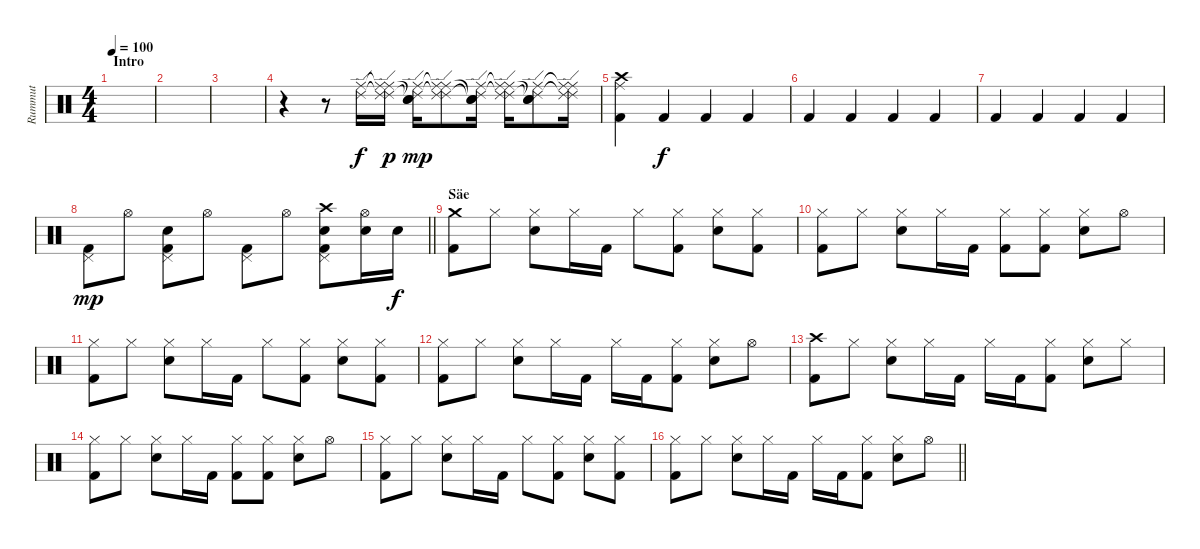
\track ("Rummut" "Rummut") {instrument percussion}
\staff {score}
\articulation defaults
\ts (4 4)
\section ("" "Intro")
\tempo 100
\clef neutral
\ks c
|
|
|
r.4 r.8 ("Ride (middle)" "Ride (edge) 2").16 ("Ride (middle)"{t} "Ride (edge) 2"{t} "Ride (middle)" "Ride (edge) 2").16{dy p} ("Ride (middle)" "Ride (edge) 2" "Snare (hit)"{t} "Snare (hit)"{t}).16{dy mp} ("Ride (middle)"{t} "Ride (edge) 2"{t} "Ride (middle)" "Ride (edge) 2").8 ("Ride (middle)" "Ride (edge) 2" "Snare (hit)"{t} "Snare (hit)"{t}).16 ("Ride (middle)"{t} "Ride (edge) 2"{t} "Ride (middle)" "Ride (edge) 2").16 ("Ride (middle)" "Ride (edge) 2" "Snare (hit)"{t} "Snare (hit)"{t}).8 ("Ride (middle)"{t} "Ride (edge) 2"{t} "Ride (middle)" "Ride (edge) 2").16 |
("Crash high (hit)" "Ride (middle)" "Kick (hit) 2").4 "Kick (hit) 2".4{dy f} "Kick (hit) 2".4 "Kick (hit) 2".4 |
"Kick (hit) 2".4 "Kick (hit) 2".4 "Kick (hit) 2".4 "Kick (hit) 2".4 |
"Kick (hit) 2".4 "Kick (hit) 2".4 "Kick (hit) 2".4 "Kick (hit) 2".4 |
\barLineRight lightlight
("Pedal Hi-Hat (hit)" "Kick (hit) 2").8{dy mp} "Hi-Hat (open)".8 ("Snare (hit) 2" "Pedal Hi-Hat (hit)" "Kick (hit) 2").8 "Hi-Hat (open)".8 ("Pedal Hi-Hat (hit)" "Kick (hit) 2").8 "Hi-Hat (open)".8 ("Crash high (hit)" "Snare (hit) 2" "Pedal Hi-Hat (hit)" "Kick (hit) 2").8 ("Snare (hit) 2" "Hi-Hat (open)").16 "Snare (hit) 2".16{dy f} |
\section ("" "Säe")
("Crash medium (hit)" "Kick (hit) 2").8 "Hi-Hat (closed)".8 ("Hi-Hat (closed)" "Snare (hit) 2").8 "Hi-Hat (closed)".16 "Kick (hit) 2".16 "Hi-Hat (closed)".8 ("Hi-Hat (closed)" "Kick (hit) 2").8 ("Hi-Hat (closed)" "Snare (hit) 2").8 ("Hi-Hat (closed)" "Kick (hit) 2").8 |
("Hi-Hat (closed)" "Kick (hit) 2").8 "Hi-Hat (closed)".8 ("Hi-Hat (closed)" "Snare (hit) 2").8 "Hi-Hat (closed)".16 "Kick (hit) 2".16 ("Hi-Hat (closed)" "Kick (hit) 2").8 ("Hi-Hat (closed)" "Kick (hit) 2").8 ("Hi-Hat (closed)" "Snare (hit) 2").8 "Hi-Hat (open)".8 |
("Hi-Hat (closed)" "Kick (hit) 2").8 "Hi-Hat (closed)".8 ("Hi-Hat (closed)" "Snare (hit) 2").8 "Hi-Hat (closed)".16 "Kick (hit) 2".16 "Hi-Hat (closed)".8 ("Hi-Hat (closed)" "Kick (hit) 2").8 ("Hi-Hat (closed)" "Snare (hit) 2").8 ("Hi-Hat (closed)" "Kick (hit) 2").8 |
("Hi-Hat (closed)" "Kick (hit) 2").8 "Hi-Hat (closed)".8 ("Hi-Hat (closed)" "Snare (hit) 2").8 "Hi-Hat (closed)".16 "Kick (hit) 2".16 "Hi-Hat (closed)".16 "Kick (hit) 2".16 ("Hi-Hat (closed)" "Kick (hit) 2").8 ("Hi-Hat (closed)" "Snare (hit) 2").8 "Hi-Hat (open)".8 |
("Crash high (hit)" "Kick (hit) 2").8 "Hi-Hat (closed)".8 ("Hi-Hat (closed)" "Snare (hit) 2").8 "Hi-Hat (closed)".16 "Kick (hit) 2".16 "Hi-Hat (closed)".16 "Kick (hit) 2".16 ("Hi-Hat (closed)" "Kick (hit) 2").8 ("Hi-Hat (closed)" "Snare (hit) 2").8 "Hi-Hat (closed)".8 |
("Hi-Hat (closed)" "Kick (hit) 2").8 "Hi-Hat (closed)".8 ("Hi-Hat (closed)" "Snare (hit) 2").8 "Hi-Hat (closed)".16 "Kick (hit) 2".16 ("Hi-Hat (closed)" "Kick (hit) 2").8 ("Hi-Hat (closed)" "Kick (hit) 2").8 ("Hi-Hat (closed)" "Snare (hit) 2").8 "Hi-Hat (open)".8 |
("Hi-Hat (closed)" "Kick (hit) 2").8 "Hi-Hat (closed)".8 ("Hi-Hat (closed)" "Snare (hit) 2").8 "Hi-Hat (closed)".16 "Kick (hit) 2".16 "Hi-Hat (closed)".8 ("Hi-Hat (closed)" "Kick (hit) 2").8 ("Hi-Hat (closed)" "Snare (hit) 2").8 ("Hi-Hat (closed)" "Kick (hit) 2").8 |
\barLineRight lightlight
("Hi-Hat (closed)" "Kick (hit) 2").8 "Hi-Hat (closed)".8 ("Hi-Hat (closed)" "Snare (hit) 2").8 "Hi-Hat (closed)".16 "Kick (hit) 2".16 "Hi-Hat (closed)".16 "Kick (hit) 2".16 ("Hi-Hat (closed)" "Kick (hit) 2").8 ("Hi-Hat (closed)" "Snare (hit) 2").8 "Hi-Hat (open)".8
